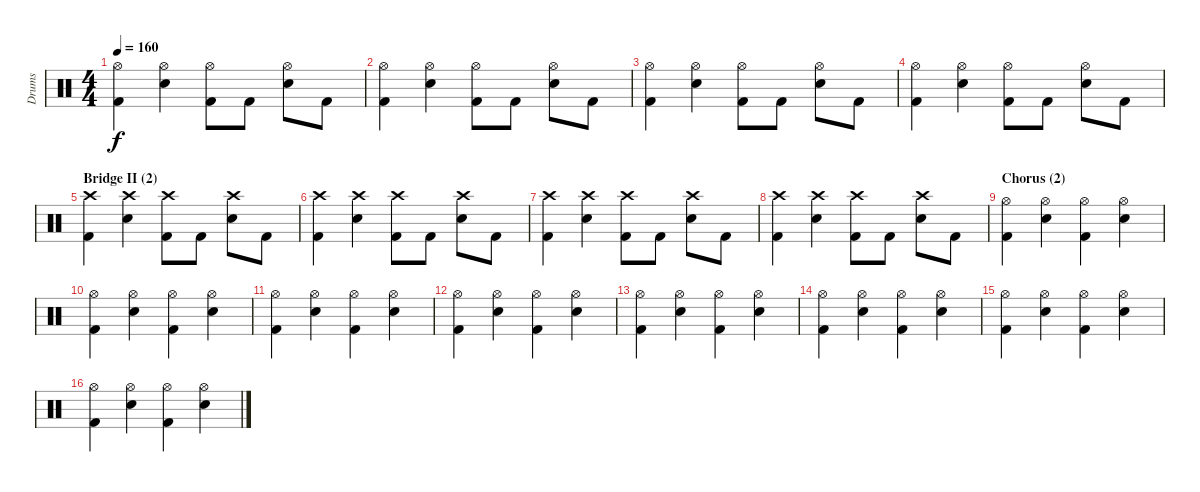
\track ("Drums" "Drums") {instrument percussion}
\staff {score}
\articulation defaults
\ts (4 4)
\tempo 160
\clef neutral
\ks c
("Hi-Hat (open)" "Kick (hit) 2").4{dy f} ("Hi-Hat (open)" "Snare (hit) 2").4 ("Hi-Hat (open)" "Kick (hit) 2").8 "Kick (hit) 2".8 ("Hi-Hat (open)" "Snare (hit) 2").8 "Kick (hit) 2".8 |
("Hi-Hat (open)" "Kick (hit) 2").4 ("Hi-Hat (open)" "Snare (hit) 2").4 ("Hi-Hat (open)" "Kick (hit) 2").8 "Kick (hit) 2".8 ("Hi-Hat (open)" "Snare (hit) 2").8 "Kick (hit) 2".8 |
("Hi-Hat (open)" "Kick (hit) 2").4 ("Hi-Hat (open)" "Snare (hit) 2").4 ("Hi-Hat (open)" "Kick (hit) 2").8 "Kick (hit) 2".8 ("Hi-Hat (open)" "Snare (hit) 2").8 "Kick (hit) 2".8 |
("Hi-Hat (open)" "Kick (hit) 2").4 ("Hi-Hat (open)" "Snare (hit) 2").4 ("Hi-Hat (open)" "Kick (hit) 2").8 "Kick (hit) 2".8 ("Hi-Hat (open)" "Snare (hit) 2").8 "Kick (hit) 2".8 |
\section ("" "Bridge II (2)")
("Crash high (hit)" "Kick (hit) 2").4 ("Crash high (hit)" "Snare (hit) 2").4 ("Crash high (hit)" "Kick (hit) 2").8 "Kick (hit) 2".8 ("Crash high (hit)" "Snare (hit) 2").8 "Kick (hit) 2".8 |
("Crash high (hit)" "Kick (hit) 2").4 ("Crash high (hit)" "Snare (hit) 2").4 ("Crash high (hit)" "Kick (hit) 2").8 "Kick (hit) 2".8 ("Crash high (hit)" "Snare (hit) 2").8 "Kick (hit) 2".8 |
("Crash high (hit)" "Kick (hit) 2").4 ("Crash high (hit)" "Snare (hit) 2").4 ("Crash high (hit)" "Kick (hit) 2").8 "Kick (hit) 2".8 ("Crash high (hit)" "Snare (hit) 2").8 "Kick (hit) 2".8 |
("Crash high (hit)" "Kick (hit) 2").4 ("Crash high (hit)" "Snare (hit) 2").4 ("Crash high (hit)" "Kick (hit) 2").8 "Kick (hit) 2".8 ("Crash high (hit)" "Snare (hit) 2").8 "Kick (hit) 2".8 |
\section ("" "Chorus (2)")
("Hi-Hat (open)" "Kick (hit) 2").4 ("Hi-Hat (open)" "Snare (hit) 2").4 ("Hi-Hat (open)" "Kick (hit) 2").4 ("Hi-Hat (open)" "Snare (hit) 2").4 |
("Hi-Hat (open)" "Kick (hit) 2").4 ("Hi-Hat (open)" "Snare (hit) 2").4 ("Hi-Hat (open)" "Kick (hit) 2").4 ("Hi-Hat (open)" "Snare (hit) 2").4 |
("Hi-Hat (open)" "Kick (hit) 2").4 ("Hi-Hat (open)" "Snare (hit) 2").4 ("Hi-Hat (open)" "Kick (hit) 2").4 ("Hi-Hat (open)" "Snare (hit) 2").4 |
("Hi-Hat (open)" "Kick (hit) 2").4 ("Hi-Hat (open)" "Snare (hit) 2").4 ("Hi-Hat (open)" "Kick (hit) 2").4 ("Hi-Hat (open)" "Snare (hit) 2").4 |
("Hi-Hat (open)" "Kick (hit) 2").4 ("Hi-Hat (open)" "Snare (hit) 2").4 ("Hi-Hat (open)" "Kick (hit) 2").4 ("Hi-Hat (open)" "Snare (hit) 2").4 |
("Hi-Hat (open)" "Kick (hit) 2").4 ("Hi-Hat (open)" "Snare (hit) 2").4 ("Hi-Hat (open)" "Kick (hit) 2").4 ("Hi-Hat (open)" "Snare (hit) 2").4 |
("Hi-Hat (open)" "Kick (hit) 2").4 ("Hi-Hat (open)" "Snare (hit) 2").4 ("Hi-Hat (open)" "Kick (hit) 2").4 ("Hi-Hat (open)" "Snare (hit) 2").4 |
("Hi-Hat (open)" "Kick (hit) 2").4 ("Hi-Hat (open)" "Snare (hit) 2").4 ("Hi-Hat (open)" "Kick (hit) 2").4 ("Hi-Hat (open)" "Snare (hit) 2").4
